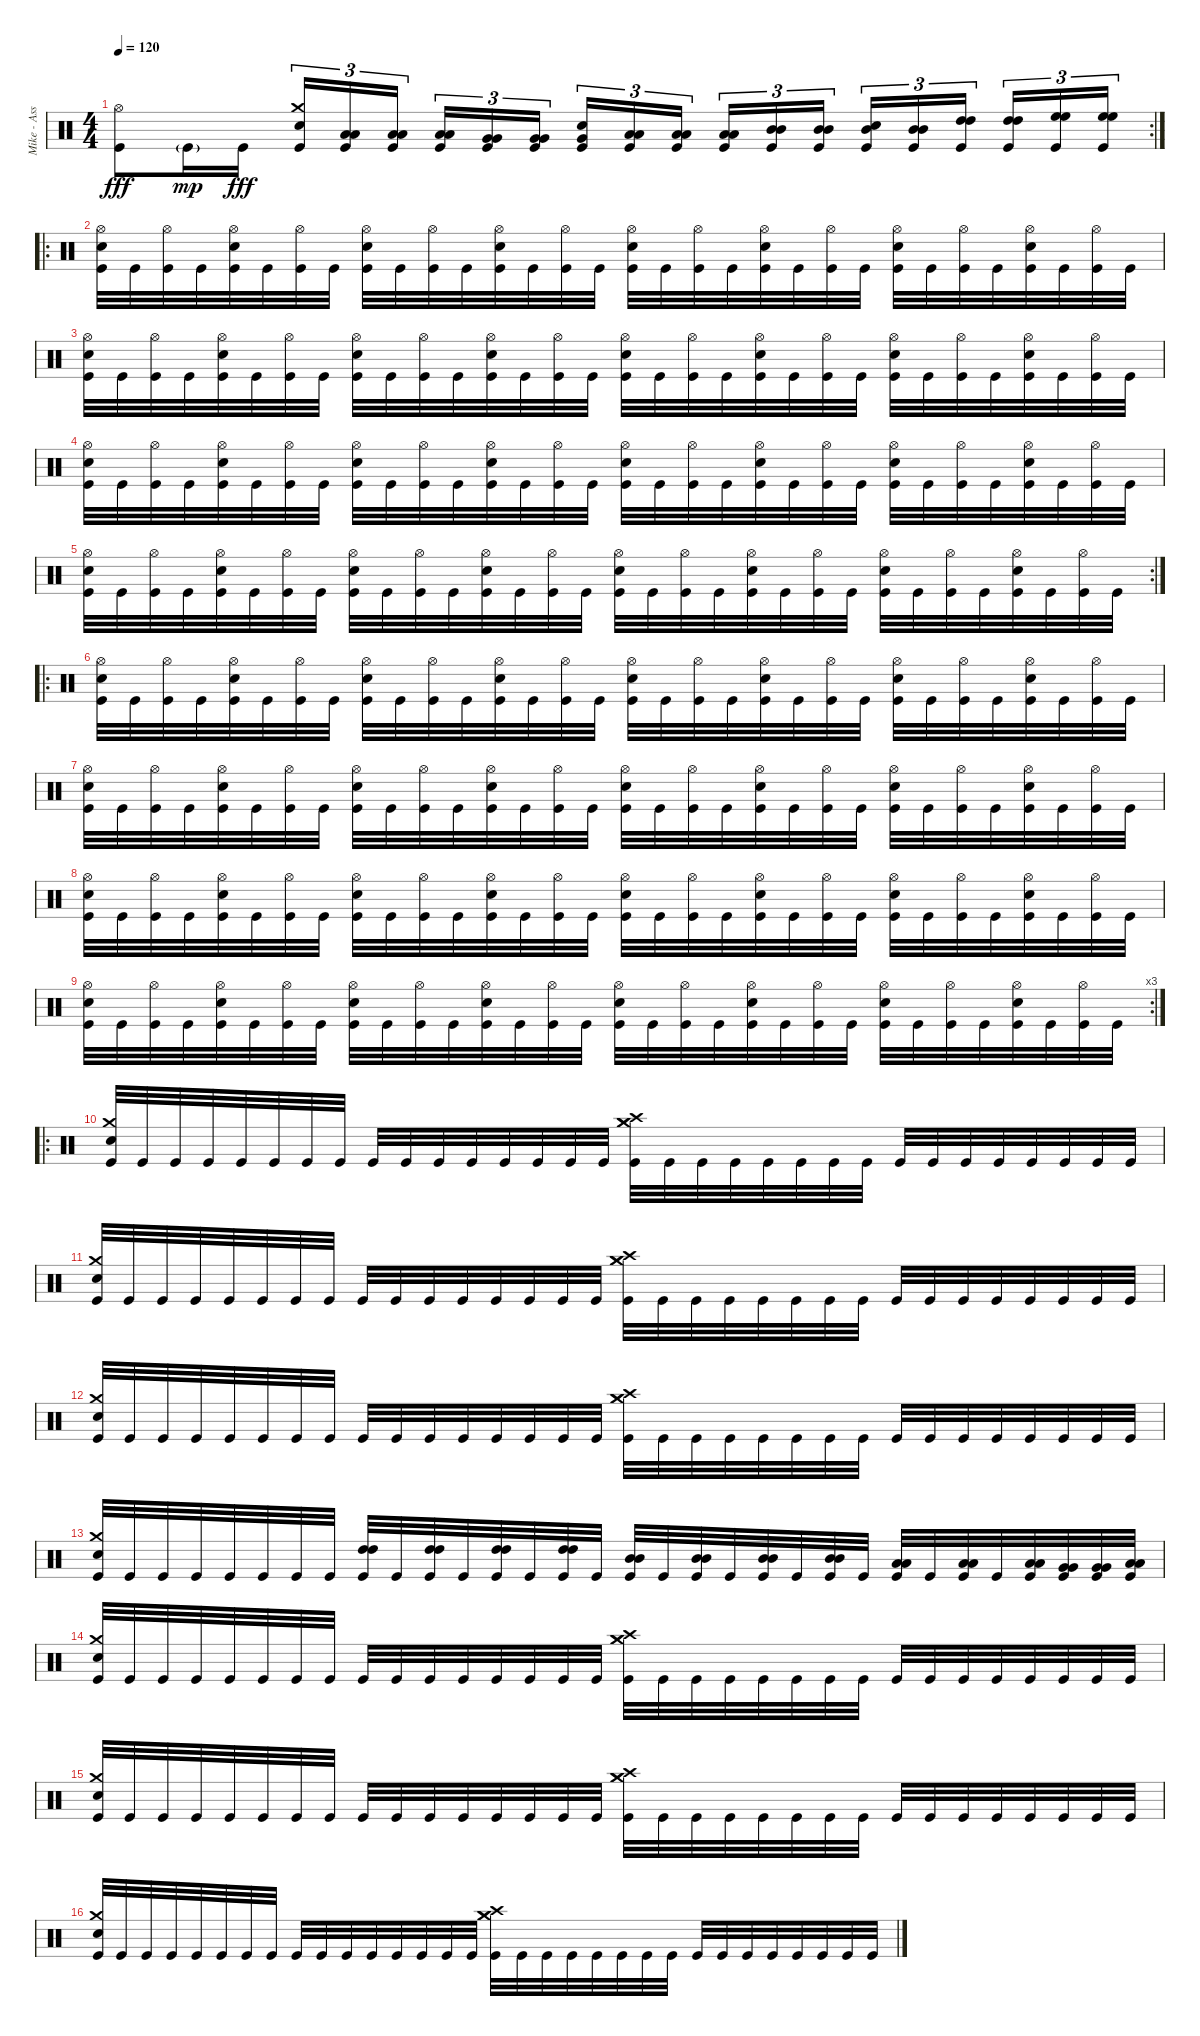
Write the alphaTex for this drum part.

\track ("Mike - Assualt And Battery" "Mike - Ass") {instrument percussion}
\staff {score}
\articulation defaults
\rc 2
\ts (4 4)
\tempo 120
\clef neutral
\ks c
("Hi-Hat (open)" "Kick (hit)").8{dy fff} "Kick (hit)"{g}.16{dy mp} "Kick (hit)".16{dy fff} ("Crash medium (hit)" "Electric Snare (hit)" "Kick (hit)").16{tu (3 2)} ("Low Floor Tom (hit)" "Low Floor Tom (hit)" "Kick (hit)").16{tu (3 2)} ("Low Floor Tom (hit)" "Low Floor Tom (hit)" "Kick (hit)").16{tu (3 2)} ("Low Floor Tom (hit)" "Low Floor Tom (hit)" "Kick (hit)").16{tu (3 2)} ("Very Low Tom (hit)" "Very Low Tom (hit)" "Kick (hit)").16{tu (3 2)} ("Very Low Tom (hit)" "Very Low Tom (hit)" "Kick (hit)").16{tu (3 2)} ("Very Low Tom (hit)" "Electric Snare (hit)" "Kick (hit)").16{tu (3 2)} ("Low Tom (hit)" "Low Tom (hit)" "Kick (hit)").16{tu (3 2)} ("Low Tom (hit)" "Low Tom (hit)" "Kick (hit)").16{tu (3 2)} ("Low Tom (hit)" "Low Tom (hit)" "Kick (hit)").16{tu (3 2)} ("Mid Tom (hit)" "Mid Tom (hit)" "Kick (hit)").16{tu (3 2)} ("Mid Tom (hit)" "Mid Tom (hit)" "Kick (hit)").16{tu (3 2)} ("Mid Tom (hit)" "Electric Snare (hit)" "Kick (hit)").16{tu (3 2)} ("Mid Tom (hit)" "Mid Tom (hit)" "Kick (hit)").16{tu (3 2)} ("High Tom (hit)" "High Tom (hit)" "Kick (hit)").16{tu (3 2)} ("High Tom (hit)" "High Tom (hit)" "Kick (hit)").16{tu (3 2)} ("High Floor Tom (hit)" "High Floor Tom (hit)" "Kick (hit)").16{tu (3 2)} ("High Floor Tom (hit)" "High Floor Tom (hit)" "Kick (hit)").16{tu (3 2)} |
\ro
("Electric Snare (hit)" "Hi-Hat (open)" "Kick (hit)").32 "Kick (hit)".32 ("Hi-Hat (open)" "Kick (hit)").32 "Kick (hit)".32 ("Electric Snare (hit)" "Hi-Hat (open)" "Kick (hit)").32 "Kick (hit)".32 ("Hi-Hat (open)" "Kick (hit)").32 "Kick (hit)".32 ("Electric Snare (hit)" "Hi-Hat (open)" "Kick (hit)").32 "Kick (hit)".32 ("Hi-Hat (open)" "Kick (hit)").32 "Kick (hit)".32 ("Electric Snare (hit)" "Hi-Hat (open)" "Kick (hit)").32 "Kick (hit)".32 ("Hi-Hat (open)" "Kick (hit)").32 "Kick (hit)".32 ("Electric Snare (hit)" "Hi-Hat (open)" "Kick (hit)").32 "Kick (hit)".32 ("Hi-Hat (open)" "Kick (hit)").32 "Kick (hit)".32 ("Electric Snare (hit)" "Hi-Hat (open)" "Kick (hit)").32 "Kick (hit)".32 ("Hi-Hat (open)" "Kick (hit)").32 "Kick (hit)".32 ("Electric Snare (hit)" "Hi-Hat (open)" "Kick (hit)").32 "Kick (hit)".32 ("Hi-Hat (open)" "Kick (hit)").32 "Kick (hit)".32 ("Electric Snare (hit)" "Hi-Hat (open)" "Kick (hit)").32 "Kick (hit)".32 ("Hi-Hat (open)" "Kick (hit)").32 "Kick (hit)".32 |
("Electric Snare (hit)" "Hi-Hat (open)" "Kick (hit)").32 "Kick (hit)".32 ("Hi-Hat (open)" "Kick (hit)").32 "Kick (hit)".32 ("Electric Snare (hit)" "Hi-Hat (open)" "Kick (hit)").32 "Kick (hit)".32 ("Hi-Hat (open)" "Kick (hit)").32 "Kick (hit)".32 ("Electric Snare (hit)" "Hi-Hat (open)" "Kick (hit)").32 "Kick (hit)".32 ("Hi-Hat (open)" "Kick (hit)").32 "Kick (hit)".32 ("Electric Snare (hit)" "Hi-Hat (open)" "Kick (hit)").32 "Kick (hit)".32 ("Hi-Hat (open)" "Kick (hit)").32 "Kick (hit)".32 ("Electric Snare (hit)" "Hi-Hat (open)" "Kick (hit)").32 "Kick (hit)".32 ("Hi-Hat (open)" "Kick (hit)").32 "Kick (hit)".32 ("Electric Snare (hit)" "Hi-Hat (open)" "Kick (hit)").32 "Kick (hit)".32 ("Hi-Hat (open)" "Kick (hit)").32 "Kick (hit)".32 ("Electric Snare (hit)" "Hi-Hat (open)" "Kick (hit)").32 "Kick (hit)".32 ("Hi-Hat (open)" "Kick (hit)").32 "Kick (hit)".32 ("Electric Snare (hit)" "Hi-Hat (open)" "Kick (hit)").32 "Kick (hit)".32 ("Hi-Hat (open)" "Kick (hit)").32 "Kick (hit)".32 |
("Electric Snare (hit)" "Hi-Hat (open)" "Kick (hit)").32 "Kick (hit)".32 ("Hi-Hat (open)" "Kick (hit)").32 "Kick (hit)".32 ("Electric Snare (hit)" "Hi-Hat (open)" "Kick (hit)").32 "Kick (hit)".32 ("Hi-Hat (open)" "Kick (hit)").32 "Kick (hit)".32 ("Electric Snare (hit)" "Hi-Hat (open)" "Kick (hit)").32 "Kick (hit)".32 ("Hi-Hat (open)" "Kick (hit)").32 "Kick (hit)".32 ("Electric Snare (hit)" "Hi-Hat (open)" "Kick (hit)").32 "Kick (hit)".32 ("Hi-Hat (open)" "Kick (hit)").32 "Kick (hit)".32 ("Electric Snare (hit)" "Hi-Hat (open)" "Kick (hit)").32 "Kick (hit)".32 ("Hi-Hat (open)" "Kick (hit)").32 "Kick (hit)".32 ("Electric Snare (hit)" "Hi-Hat (open)" "Kick (hit)").32 "Kick (hit)".32 ("Hi-Hat (open)" "Kick (hit)").32 "Kick (hit)".32 ("Electric Snare (hit)" "Hi-Hat (open)" "Kick (hit)").32 "Kick (hit)".32 ("Hi-Hat (open)" "Kick (hit)").32 "Kick (hit)".32 ("Electric Snare (hit)" "Hi-Hat (open)" "Kick (hit)").32 "Kick (hit)".32 ("Hi-Hat (open)" "Kick (hit)").32 "Kick (hit)".32 |
\rc 2
("Electric Snare (hit)" "Hi-Hat (open)" "Kick (hit)").32 "Kick (hit)".32 ("Hi-Hat (open)" "Kick (hit)").32 "Kick (hit)".32 ("Electric Snare (hit)" "Hi-Hat (open)" "Kick (hit)").32 "Kick (hit)".32 ("Hi-Hat (open)" "Kick (hit)").32 "Kick (hit)".32 ("Electric Snare (hit)" "Hi-Hat (open)" "Kick (hit)").32 "Kick (hit)".32 ("Hi-Hat (open)" "Kick (hit)").32 "Kick (hit)".32 ("Electric Snare (hit)" "Hi-Hat (open)" "Kick (hit)").32 "Kick (hit)".32 ("Hi-Hat (open)" "Kick (hit)").32 "Kick (hit)".32 ("Electric Snare (hit)" "Hi-Hat (open)" "Kick (hit)").32 "Kick (hit)".32 ("Hi-Hat (open)" "Kick (hit)").32 "Kick (hit)".32 ("Electric Snare (hit)" "Hi-Hat (open)" "Kick (hit)").32 "Kick (hit)".32 ("Hi-Hat (open)" "Kick (hit)").32 "Kick (hit)".32 ("Electric Snare (hit)" "Hi-Hat (open)" "Kick (hit)").32 "Kick (hit)".32 ("Hi-Hat (open)" "Kick (hit)").32 "Kick (hit)".32 ("Electric Snare (hit)" "Hi-Hat (open)" "Kick (hit)").32 "Kick (hit)".32 ("Hi-Hat (open)" "Kick (hit)").32 "Kick (hit)".32 |
\ro
("Electric Snare (hit)" "Hi-Hat (open)" "Kick (hit)").32 "Kick (hit)".32 ("Hi-Hat (open)" "Kick (hit)").32 "Kick (hit)".32 ("Electric Snare (hit)" "Hi-Hat (open)" "Kick (hit)").32 "Kick (hit)".32 ("Hi-Hat (open)" "Kick (hit)").32 "Kick (hit)".32 ("Electric Snare (hit)" "Hi-Hat (open)" "Kick (hit)").32 "Kick (hit)".32 ("Hi-Hat (open)" "Kick (hit)").32 "Kick (hit)".32 ("Electric Snare (hit)" "Hi-Hat (open)" "Kick (hit)").32 "Kick (hit)".32 ("Hi-Hat (open)" "Kick (hit)").32 "Kick (hit)".32 ("Electric Snare (hit)" "Hi-Hat (open)" "Kick (hit)").32 "Kick (hit)".32 ("Hi-Hat (open)" "Kick (hit)").32 "Kick (hit)".32 ("Electric Snare (hit)" "Hi-Hat (open)" "Kick (hit)").32 "Kick (hit)".32 ("Hi-Hat (open)" "Kick (hit)").32 "Kick (hit)".32 ("Electric Snare (hit)" "Hi-Hat (open)" "Kick (hit)").32 "Kick (hit)".32 ("Hi-Hat (open)" "Kick (hit)").32 "Kick (hit)".32 ("Electric Snare (hit)" "Hi-Hat (open)" "Kick (hit)").32 "Kick (hit)".32 ("Hi-Hat (open)" "Kick (hit)").32 "Kick (hit)".32 |
("Electric Snare (hit)" "Hi-Hat (open)" "Kick (hit)").32 "Kick (hit)".32 ("Hi-Hat (open)" "Kick (hit)").32 "Kick (hit)".32 ("Electric Snare (hit)" "Hi-Hat (open)" "Kick (hit)").32 "Kick (hit)".32 ("Hi-Hat (open)" "Kick (hit)").32 "Kick (hit)".32 ("Electric Snare (hit)" "Hi-Hat (open)" "Kick (hit)").32 "Kick (hit)".32 ("Hi-Hat (open)" "Kick (hit)").32 "Kick (hit)".32 ("Electric Snare (hit)" "Hi-Hat (open)" "Kick (hit)").32 "Kick (hit)".32 ("Hi-Hat (open)" "Kick (hit)").32 "Kick (hit)".32 ("Electric Snare (hit)" "Hi-Hat (open)" "Kick (hit)").32 "Kick (hit)".32 ("Hi-Hat (open)" "Kick (hit)").32 "Kick (hit)".32 ("Electric Snare (hit)" "Hi-Hat (open)" "Kick (hit)").32 "Kick (hit)".32 ("Hi-Hat (open)" "Kick (hit)").32 "Kick (hit)".32 ("Electric Snare (hit)" "Hi-Hat (open)" "Kick (hit)").32 "Kick (hit)".32 ("Hi-Hat (open)" "Kick (hit)").32 "Kick (hit)".32 ("Electric Snare (hit)" "Hi-Hat (open)" "Kick (hit)").32 "Kick (hit)".32 ("Hi-Hat (open)" "Kick (hit)").32 "Kick (hit)".32 |
("Electric Snare (hit)" "Hi-Hat (open)" "Kick (hit)").32 "Kick (hit)".32 ("Hi-Hat (open)" "Kick (hit)").32 "Kick (hit)".32 ("Electric Snare (hit)" "Hi-Hat (open)" "Kick (hit)").32 "Kick (hit)".32 ("Hi-Hat (open)" "Kick (hit)").32 "Kick (hit)".32 ("Electric Snare (hit)" "Hi-Hat (open)" "Kick (hit)").32 "Kick (hit)".32 ("Hi-Hat (open)" "Kick (hit)").32 "Kick (hit)".32 ("Electric Snare (hit)" "Hi-Hat (open)" "Kick (hit)").32 "Kick (hit)".32 ("Hi-Hat (open)" "Kick (hit)").32 "Kick (hit)".32 ("Electric Snare (hit)" "Hi-Hat (open)" "Kick (hit)").32 "Kick (hit)".32 ("Hi-Hat (open)" "Kick (hit)").32 "Kick (hit)".32 ("Electric Snare (hit)" "Hi-Hat (open)" "Kick (hit)").32 "Kick (hit)".32 ("Hi-Hat (open)" "Kick (hit)").32 "Kick (hit)".32 ("Electric Snare (hit)" "Hi-Hat (open)" "Kick (hit)").32 "Kick (hit)".32 ("Hi-Hat (open)" "Kick (hit)").32 "Kick (hit)".32 ("Electric Snare (hit)" "Hi-Hat (open)" "Kick (hit)").32 "Kick (hit)".32 ("Hi-Hat (open)" "Kick (hit)").32 "Kick (hit)".32 |
\rc 3
("Electric Snare (hit)" "Hi-Hat (open)" "Kick (hit)").32 "Kick (hit)".32 ("Hi-Hat (open)" "Kick (hit)").32 "Kick (hit)".32 ("Electric Snare (hit)" "Hi-Hat (open)" "Kick (hit)").32 "Kick (hit)".32 ("Hi-Hat (open)" "Kick (hit)").32 "Kick (hit)".32 ("Electric Snare (hit)" "Hi-Hat (open)" "Kick (hit)").32 "Kick (hit)".32 ("Hi-Hat (open)" "Kick (hit)").32 "Kick (hit)".32 ("Electric Snare (hit)" "Hi-Hat (open)" "Kick (hit)").32 "Kick (hit)".32 ("Hi-Hat (open)" "Kick (hit)").32 "Kick (hit)".32 ("Electric Snare (hit)" "Hi-Hat (open)" "Kick (hit)").32 "Kick (hit)".32 ("Hi-Hat (open)" "Kick (hit)").32 "Kick (hit)".32 ("Electric Snare (hit)" "Hi-Hat (open)" "Kick (hit)").32 "Kick (hit)".32 ("Hi-Hat (open)" "Kick (hit)").32 "Kick (hit)".32 ("Electric Snare (hit)" "Hi-Hat (open)" "Kick (hit)").32 "Kick (hit)".32 ("Hi-Hat (open)" "Kick (hit)").32 "Kick (hit)".32 ("Electric Snare (hit)" "Hi-Hat (open)" "Kick (hit)").32 "Kick (hit)".32 ("Hi-Hat (open)" "Kick (hit)").32 "Kick (hit)".32 |
\ro
("Crash medium (hit)" "Snare (hit) 2" "Kick (hit)").32 "Kick (hit)".32 "Kick (hit)".32 "Kick (hit)".32 "Kick (hit)".32 "Kick (hit)".32 "Kick (hit)".32 "Kick (hit)".32 "Kick (hit)".32 "Kick (hit)".32 "Kick (hit)".32 "Kick (hit)".32 "Kick (hit)".32 "Kick (hit)".32 "Kick (hit)".32 "Kick (hit)".32 ("Crash high (hit)" "Crash medium (hit)" "Crash medium (hit)" "Kick (hit)").32 "Kick (hit)".32 "Kick (hit)".32 "Kick (hit)".32 "Kick (hit)".32 "Kick (hit)".32 "Kick (hit)".32 "Kick (hit)".32 "Kick (hit)".32 "Kick (hit)".32 "Kick (hit)".32 "Kick (hit)".32 "Kick (hit)".32 "Kick (hit)".32 "Kick (hit)".32 "Kick (hit)".32 |
("Crash medium (hit)" "Snare (hit) 2" "Kick (hit)").32 "Kick (hit)".32 "Kick (hit)".32 "Kick (hit)".32 "Kick (hit)".32 "Kick (hit)".32 "Kick (hit)".32 "Kick (hit)".32 "Kick (hit)".32 "Kick (hit)".32 "Kick (hit)".32 "Kick (hit)".32 "Kick (hit)".32 "Kick (hit)".32 "Kick (hit)".32 "Kick (hit)".32 ("Crash high (hit)" "Crash medium (hit)" "Crash medium (hit)" "Kick (hit)").32 "Kick (hit)".32 "Kick (hit)".32 "Kick (hit)".32 "Kick (hit)".32 "Kick (hit)".32 "Kick (hit)".32 "Kick (hit)".32 "Kick (hit)".32 "Kick (hit)".32 "Kick (hit)".32 "Kick (hit)".32 "Kick (hit)".32 "Kick (hit)".32 "Kick (hit)".32 "Kick (hit)".32 |
("Crash medium (hit)" "Snare (hit) 2" "Kick (hit)").32 "Kick (hit)".32 "Kick (hit)".32 "Kick (hit)".32 "Kick (hit)".32 "Kick (hit)".32 "Kick (hit)".32 "Kick (hit)".32 "Kick (hit)".32 "Kick (hit)".32 "Kick (hit)".32 "Kick (hit)".32 "Kick (hit)".32 "Kick (hit)".32 "Kick (hit)".32 "Kick (hit)".32 ("Crash high (hit)" "Crash medium (hit)" "Crash medium (hit)" "Kick (hit)").32 "Kick (hit)".32 "Kick (hit)".32 "Kick (hit)".32 "Kick (hit)".32 "Kick (hit)".32 "Kick (hit)".32 "Kick (hit)".32 "Kick (hit)".32 "Kick (hit)".32 "Kick (hit)".32 "Kick (hit)".32 "Kick (hit)".32 "Kick (hit)".32 "Kick (hit)".32 "Kick (hit)".32 |
("Crash medium (hit)" "Snare (hit) 2" "Kick (hit)").32 "Kick (hit)".32 "Kick (hit)".32 "Kick (hit)".32 "Kick (hit)".32 "Kick (hit)".32 "Kick (hit)".32 "Kick (hit)".32 ("High Tom (hit)" "High Tom (hit)" "Kick (hit)").32 "Kick (hit)".32 ("High Tom (hit)" "High Tom (hit)" "Kick (hit)").32 "Kick (hit)".32 ("High Tom (hit)" "High Tom (hit)" "Kick (hit)").32 "Kick (hit)".32 ("High Tom (hit)" "High Tom (hit)" "Kick (hit)").32 "Kick (hit)".32 ("Mid Tom (hit)" "Mid Tom (hit)" "Kick (hit)").32 "Kick (hit)".32 ("Mid Tom (hit)" "Mid Tom (hit)" "Kick (hit)").32 "Kick (hit)".32 ("Mid Tom (hit)" "Mid Tom (hit)" "Kick (hit)").32 "Kick (hit)".32 ("Mid Tom (hit)" "Mid Tom (hit)" "Kick (hit)").32 "Kick (hit)".32 ("Low Tom (hit)" "Low Tom (hit)" "Kick (hit)").32 "Kick (hit)".32 ("Low Tom (hit)" "Low Tom (hit)" "Kick (hit)").32 "Kick (hit)".32 ("Low Tom (hit)" "Low Tom (hit)" "Kick (hit)").32 ("Very Low Tom (hit)" "Very Low Tom (hit)" "Kick (hit)").32 ("Very Low Tom (hit)" "Very Low Tom (hit)" "Kick (hit)").32 ("Low Floor Tom (hit)" "Low Floor Tom (hit)" "Kick (hit)").32 |
("Crash medium (hit)" "Snare (hit) 2" "Kick (hit)").32 "Kick (hit)".32 "Kick (hit)".32 "Kick (hit)".32 "Kick (hit)".32 "Kick (hit)".32 "Kick (hit)".32 "Kick (hit)".32 "Kick (hit)".32 "Kick (hit)".32 "Kick (hit)".32 "Kick (hit)".32 "Kick (hit)".32 "Kick (hit)".32 "Kick (hit)".32 "Kick (hit)".32 ("Crash high (hit)" "Crash medium (hit)" "Crash medium (hit)" "Kick (hit)").32 "Kick (hit)".32 "Kick (hit)".32 "Kick (hit)".32 "Kick (hit)".32 "Kick (hit)".32 "Kick (hit)".32 "Kick (hit)".32 "Kick (hit)".32 "Kick (hit)".32 "Kick (hit)".32 "Kick (hit)".32 "Kick (hit)".32 "Kick (hit)".32 "Kick (hit)".32 "Kick (hit)".32 |
("Crash medium (hit)" "Snare (hit) 2" "Kick (hit)").32 "Kick (hit)".32 "Kick (hit)".32 "Kick (hit)".32 "Kick (hit)".32 "Kick (hit)".32 "Kick (hit)".32 "Kick (hit)".32 "Kick (hit)".32 "Kick (hit)".32 "Kick (hit)".32 "Kick (hit)".32 "Kick (hit)".32 "Kick (hit)".32 "Kick (hit)".32 "Kick (hit)".32 ("Crash high (hit)" "Crash medium (hit)" "Crash medium (hit)" "Kick (hit)").32 "Kick (hit)".32 "Kick (hit)".32 "Kick (hit)".32 "Kick (hit)".32 "Kick (hit)".32 "Kick (hit)".32 "Kick (hit)".32 "Kick (hit)".32 "Kick (hit)".32 "Kick (hit)".32 "Kick (hit)".32 "Kick (hit)".32 "Kick (hit)".32 "Kick (hit)".32 "Kick (hit)".32 |
("Crash medium (hit)" "Snare (hit) 2" "Kick (hit)").32 "Kick (hit)".32 "Kick (hit)".32 "Kick (hit)".32 "Kick (hit)".32 "Kick (hit)".32 "Kick (hit)".32 "Kick (hit)".32 "Kick (hit)".32 "Kick (hit)".32 "Kick (hit)".32 "Kick (hit)".32 "Kick (hit)".32 "Kick (hit)".32 "Kick (hit)".32 "Kick (hit)".32 ("Crash high (hit)" "Crash medium (hit)" "Crash medium (hit)" "Kick (hit)").32 "Kick (hit)".32 "Kick (hit)".32 "Kick (hit)".32 "Kick (hit)".32 "Kick (hit)".32 "Kick (hit)".32 "Kick (hit)".32 "Kick (hit)".32 "Kick (hit)".32 "Kick (hit)".32 "Kick (hit)".32 "Kick (hit)".32 "Kick (hit)".32 "Kick (hit)".32 "Kick (hit)".32
